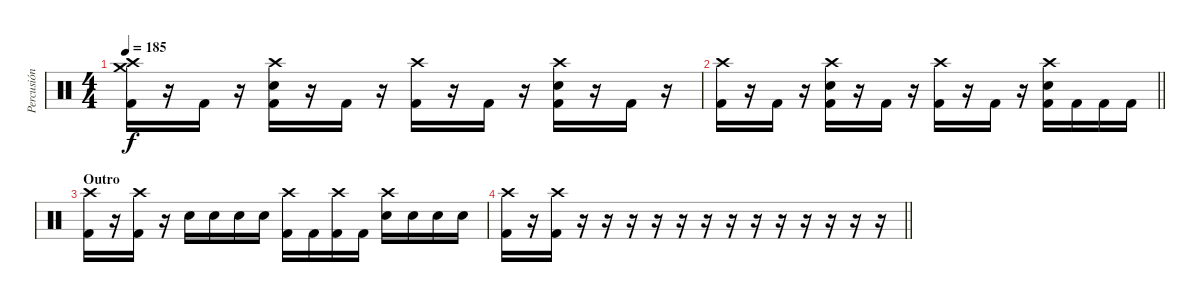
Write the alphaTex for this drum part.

\track ("Percusión" "Percusión") {instrument percussion}
\staff {score}
\articulation defaults
\ts (4 4)
\tempo 185
\clef neutral
\ks c
("Crash high (hit)" "Crash medium (hit)" "Kick (hit) 2").16{dy f} r.16 "Kick (hit) 2".16 r.16 ("Crash high (hit)" "Electric Snare (hit)" "Kick (hit) 2").16 r.16 "Kick (hit) 2".16 r.16 ("Crash high (hit)" "Kick (hit) 2").16 r.16 "Kick (hit) 2".16 r.16 ("Crash high (hit)" "Electric Snare (hit)" "Kick (hit) 2").16 r.16 "Kick (hit) 2".16 r.16 |
\barLineRight lightlight
("Crash high (hit)" "Kick (hit) 2").16 r.16 "Kick (hit) 2".16 r.16 ("Crash high (hit)" "Electric Snare (hit)" "Kick (hit) 2").16 r.16 "Kick (hit) 2".16 r.16 ("Crash high (hit)" "Kick (hit) 2").16 r.16 "Kick (hit) 2".16 r.16 ("Crash high (hit)" "Electric Snare (hit)" "Kick (hit) 2").16 "Kick (hit) 2".16 "Kick (hit) 2".16 "Kick (hit) 2".16 |
\section ("" "Outro")
("Crash high (hit)" "Kick (hit) 2").16 r.16 ("Crash high (hit)" "Kick (hit) 2").16 r.16 "Electric Snare (hit)".16 "Electric Snare (hit)".16 "Electric Snare (hit)".16 "Electric Snare (hit)".16 ("Crash high (hit)" "Kick (hit) 2").16 "Kick (hit) 2".16 ("Crash high (hit)" "Kick (hit) 2").16 "Kick (hit) 2".16 ("Crash high (hit)" "Electric Snare (hit)").16 "Electric Snare (hit)".16 "Electric Snare (hit)".16 "Electric Snare (hit)".16 |
\barLineRight lightlight
("Crash high (hit)" "Kick (hit) 2").16 r.16 ("Crash high (hit)" "Kick (hit) 2").16 r.16 r.16 r.16 r.16 r.16 r.16 r.16 r.16 r.16 r.16 r.16 r.16 r.16
